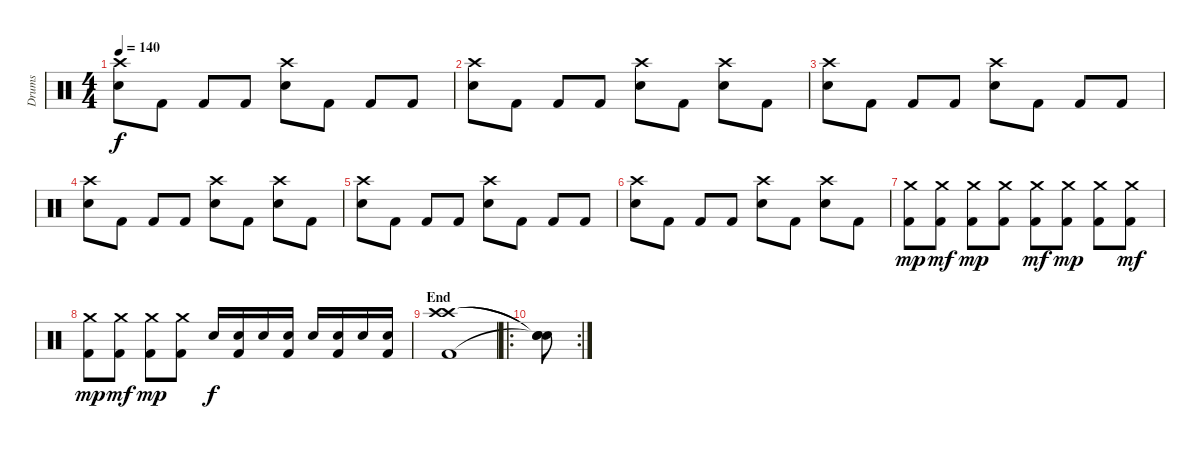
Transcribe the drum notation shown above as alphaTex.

\track ("Drums" "Drums") {instrument percussion}
\staff {score}
\articulation defaults
\ts (4 4)
\tempo 140
\clef neutral
\ks c
("Crash high (hit)" "Electric Snare (hit)").8{dy f} "Kick (hit) 2".8 "Kick (hit) 2".8 "Kick (hit) 2".8 ("Crash high (hit)" "Electric Snare (hit)").8 "Kick (hit) 2".8 "Kick (hit) 2".8 "Kick (hit) 2".8 |
("Crash high (hit)" "Electric Snare (hit)").8 "Kick (hit) 2".8 "Kick (hit) 2".8 "Kick (hit) 2".8 ("Crash high (hit)" "Electric Snare (hit)").8 "Kick (hit) 2".8 ("Crash high (hit)" "Electric Snare (hit)").8 "Kick (hit) 2".8 |
("Crash high (hit)" "Electric Snare (hit)").8 "Kick (hit) 2".8 "Kick (hit) 2".8 "Kick (hit) 2".8 ("Crash high (hit)" "Electric Snare (hit)").8 "Kick (hit) 2".8 "Kick (hit) 2".8 "Kick (hit) 2".8 |
("Crash high (hit)" "Electric Snare (hit)").8 "Kick (hit) 2".8 "Kick (hit) 2".8 "Kick (hit) 2".8 ("Crash high (hit)" "Electric Snare (hit)").8 "Kick (hit) 2".8 ("Crash high (hit)" "Electric Snare (hit)").8 "Kick (hit) 2".8 |
("Crash high (hit)" "Electric Snare (hit)").8 "Kick (hit) 2".8 "Kick (hit) 2".8 "Kick (hit) 2".8 ("Crash high (hit)" "Electric Snare (hit)").8 "Kick (hit) 2".8 "Kick (hit) 2".8 "Kick (hit) 2".8 |
("Crash high (hit)" "Electric Snare (hit)").8 "Kick (hit) 2".8 "Kick (hit) 2".8 "Kick (hit) 2".8 ("Crash high (hit)" "Electric Snare (hit)").8 "Kick (hit) 2".8 ("Crash high (hit)" "Electric Snare (hit)").8 "Kick (hit) 2".8 |
("Crash medium (hit)" "Kick (hit) 2").8{dy mp} ("Crash medium (hit)" "Kick (hit) 2").8{dy mf} ("Crash medium (hit)" "Kick (hit) 2").8{dy mp} ("Crash medium (hit)" "Kick (hit) 2").8 ("Crash medium (hit)" "Kick (hit) 2").8{dy mf} ("Crash medium (hit)" "Kick (hit) 2").8{dy mp} ("Crash medium (hit)" "Kick (hit) 2").8 ("Crash medium (hit)" "Kick (hit) 2").8{dy mf} |
("Crash medium (hit)" "Kick (hit) 2").8{dy mp} ("Crash medium (hit)" "Kick (hit) 2").8{dy mf} ("Crash medium (hit)" "Kick (hit) 2").8{dy mp} ("Crash medium (hit)" "Kick (hit) 2").8 "Electric Snare (hit)".16{dy f} ("Electric Snare (hit)" "Kick (hit) 2").16 "Electric Snare (hit)".16 ("Electric Snare (hit)" "Kick (hit) 2").16 "Electric Snare (hit)".16 ("Electric Snare (hit)" "Kick (hit) 2").16 "Electric Snare (hit)".16 ("Electric Snare (hit)" "Kick (hit) 2").16 |
\section ("" "End")
("Crash high (hit)" "Crash high (hit)" "Kick (hit) 2").1 |
\ro
\rc 2
("Snare (hit)"{t} "Snare (hit)"{t} "Snare (hit)"{t}).8
